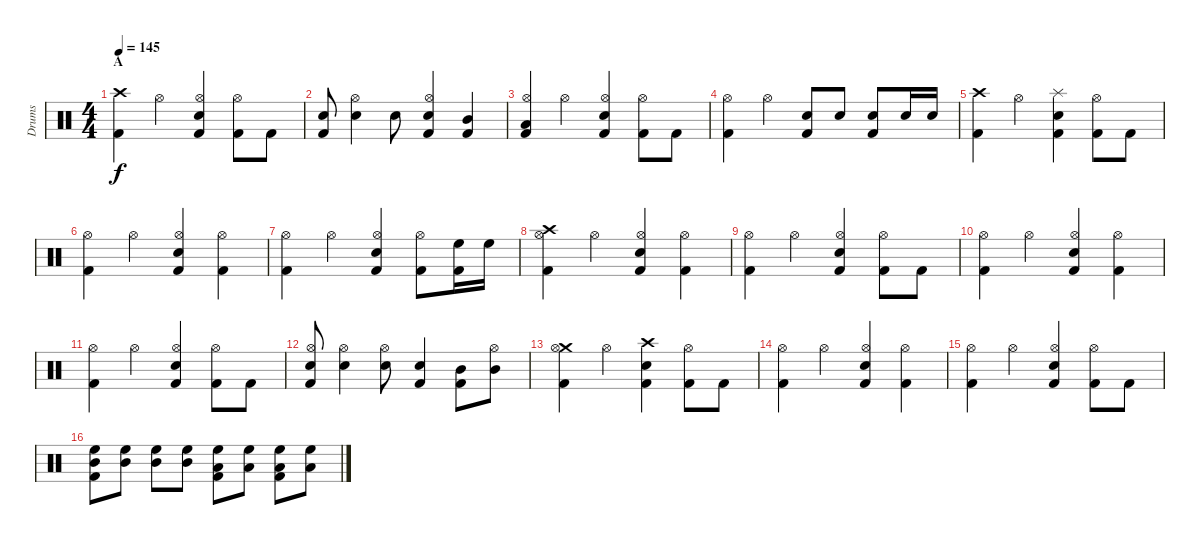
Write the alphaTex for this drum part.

\track ("Drums" "Drums") {instrument percussion}
\staff {score}
\articulation defaults
\ts (4 4)
\section ("" "A")
\tempo 145
\clef neutral
\ks c
("Crash high (hit)" "Kick (hit) 2").4{dy f} "Hi-Hat (open)".4 ("Snare (hit) 2" "Hi-Hat (open)" "Kick (hit) 2").4 ("Hi-Hat (open)" "Kick (hit) 2").8 "Kick (hit) 2".8 |
("Snare (hit) 2" "Kick (hit) 2").8 ("Snare (hit) 2" "Hi-Hat (open)").4 "Snare (hit) 2".8 ("Snare (hit) 2" "Hi-Hat (open)" "Kick (hit) 2").4 ("Mid Tom (hit)" "Kick (hit) 2").4 |
("Low Tom (hit)" "Hi-Hat (open)" "Kick (hit) 2").4 "Hi-Hat (open)".4 ("Snare (hit) 2" "Hi-Hat (open)" "Kick (hit) 2").4 ("Hi-Hat (open)" "Kick (hit) 2").8 "Kick (hit) 2".8 |
("Hi-Hat (open)" "Kick (hit) 2").4 "Hi-Hat (open)".4 ("Snare (hit) 2" "Kick (hit) 2").8 "Snare (hit) 2".8 ("Snare (hit) 2" "Kick (hit) 2").8 "Snare (hit) 2".16 "Snare (hit) 2".16 |
("Crash high (hit)" "Kick (hit) 2").4 "Hi-Hat (open)".4 ("Snare (hit) 2" "Splash (hit)" "Kick (hit) 2").4 ("Hi-Hat (open)" "Kick (hit) 2").8 "Kick (hit) 2".8 |
("Hi-Hat (open)" "Kick (hit) 2").4 "Hi-Hat (open)".4 ("Snare (hit) 2" "Hi-Hat (open)" "Kick (hit) 2").4 ("Hi-Hat (open)" "Kick (hit) 2").4 |
("Hi-Hat (open)" "Kick (hit) 2").4 "Hi-Hat (open)".4 ("Snare (hit) 2" "Hi-Hat (open)" "Kick (hit) 2").4 ("Hi-Hat (open)" "Kick (hit) 2").8 ("High Floor Tom (hit)" "Kick (hit) 2").16 "High Floor Tom (hit)".16 |
("Crash high (hit)" "Hi-Hat (open)" "Kick (hit) 2").4 "Hi-Hat (open)".4 ("Snare (hit) 2" "Hi-Hat (open)" "Kick (hit) 2").4 ("Hi-Hat (open)" "Kick (hit) 2").4 |
("Hi-Hat (open)" "Kick (hit) 2").4 "Hi-Hat (open)".4 ("Snare (hit) 2" "Hi-Hat (open)" "Kick (hit) 2").4 ("Hi-Hat (open)" "Kick (hit) 2").8 "Kick (hit) 2".8 |
("Hi-Hat (open)" "Kick (hit) 2").4 "Hi-Hat (open)".4 ("Snare (hit) 2" "Hi-Hat (open)" "Kick (hit) 2").4 ("Hi-Hat (open)" "Kick (hit) 2").4 |
("Hi-Hat (open)" "Kick (hit) 2").4 "Hi-Hat (open)".4 ("Snare (hit) 2" "Hi-Hat (open)" "Kick (hit) 2").4 ("Hi-Hat (open)" "Kick (hit) 2").8 "Kick (hit) 2".8 |
("Snare (hit) 2" "Hi-Hat (open)" "Kick (hit) 2").8 ("Snare (hit) 2" "Hi-Hat (open)").4 ("Snare (hit) 2" "Hi-Hat (open)").8 ("Snare (hit) 2" "Kick (hit) 2").4 ("Mid Tom (hit)" "Kick (hit) 2").8 ("Mid Tom (hit)" "Hi-Hat (open)").8 |
("Crash medium (hit)" "Hi-Hat (open)" "Kick (hit) 2").4 "Hi-Hat (open)".4 ("Snare (hit) 2" "Crash high (hit)" "Kick (hit) 2").4 ("Hi-Hat (open)" "Kick (hit) 2").8 "Kick (hit) 2".8 |
("Hi-Hat (open)" "Kick (hit) 2").4 "Hi-Hat (open)".4 ("Snare (hit) 2" "Hi-Hat (open)" "Kick (hit) 2").4 ("Hi-Hat (open)" "Kick (hit) 2").4 |
("Hi-Hat (open)" "Kick (hit) 2").4 "Hi-Hat (open)".4 ("Snare (hit) 2" "Hi-Hat (open)" "Kick (hit) 2").4 ("Hi-Hat (open)" "Kick (hit) 2").8 "Kick (hit) 2".8 |
("Mid Tom (hit)" "High Floor Tom (hit)" "Kick (hit) 2").8 ("Mid Tom (hit)" "High Floor Tom (hit)").8 ("Mid Tom (hit)" "High Floor Tom (hit)").8 ("Mid Tom (hit)" "High Floor Tom (hit)").8 ("Low Floor Tom (hit)" "High Floor Tom (hit)" "Kick (hit) 2").8 ("Low Floor Tom (hit)" "High Floor Tom (hit)").8 ("Low Floor Tom (hit)" "High Floor Tom (hit)" "Kick (hit) 2").8 ("Low Floor Tom (hit)" "High Floor Tom (hit)").8
